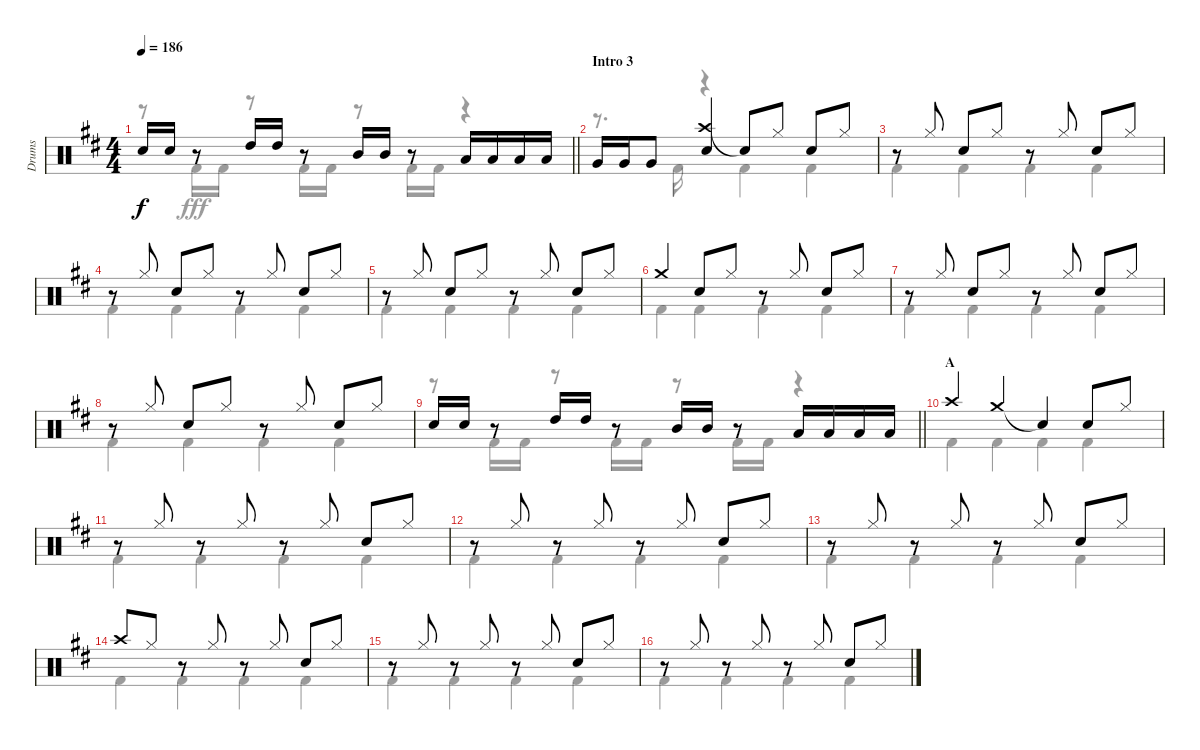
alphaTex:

\track ("Drums" "Drums") {instrument percussion}
\staff {score}
\articulation defaults
\voice
\ts (4 4)
\tempo 186
\clef neutral
\barLineRight lightlight
\ks d "Snare (hit) 2".16{dy f} "Snare (hit) 2".16
r.8 "High Tom (hit)".16 "High Tom (hit)".16 r.8 "Mid Tom (hit)".16 "Mid Tom (hit)".16 r.8 "Low Tom (hit)".16 "Low Tom (hit)".16 "Low Tom (hit)".16 "Low Tom (hit)".16 |
\section ("" "Intro 3")
"Very Low Tom (hit)".16 "Very Low Tom (hit)".16 "Very Low Tom (hit)".8 ("Crash high (hit)" "Snare (hit) 2").4 "Snare (hit)"{t}.8 "Hi-Hat (closed)".8 "Snare (hit) 2".8 "Hi-Hat (closed)".8 |
r.8 "Hi-Hat (closed)".8 "Snare (hit) 2".8 "Hi-Hat (closed)".8 r.8 "Hi-Hat (closed)".8 "Snare (hit) 2".8 "Hi-Hat (closed)".8 |
r.8 "Hi-Hat (closed)".8 "Snare (hit) 2".8 "Hi-Hat (closed)".8 r.8 "Hi-Hat (closed)".8 "Snare (hit) 2".8 "Hi-Hat (closed)".8 |
r.8 "Hi-Hat (closed)".8 "Snare (hit) 2".8 "Hi-Hat (closed)".8 r.8 "Hi-Hat (closed)".8 "Snare (hit) 2".8 "Hi-Hat (closed)".8 |
"Crash medium (hit)".4 "Snare (hit) 2".8 "Hi-Hat (closed)".8 r.8 "Hi-Hat (closed)".8 "Snare (hit) 2".8 "Hi-Hat (closed)".8 |
r.8 "Hi-Hat (closed)".8 "Snare (hit) 2".8 "Hi-Hat (closed)".8 r.8 "Hi-Hat (closed)".8 "Snare (hit) 2".8 "Hi-Hat (closed)".8 |
r.8 "Hi-Hat (closed)".8 "Snare (hit) 2".8 "Hi-Hat (closed)".8 r.8 "Hi-Hat (closed)".8 "Snare (hit) 2".8 "Hi-Hat (closed)".8 |
\barLineRight lightlight "Snare (hit) 2".16 "Snare (hit) 2".16
r.8 "High Tom (hit)".16 "High Tom (hit)".16 r.8 "Mid Tom (hit)".16 "Mid Tom (hit)".16 r.8 "Low Tom (hit)".16 "Low Tom (hit)".16 "Low Tom (hit)".16 "Low Tom (hit)".16 |
\section ("" "A")
"Crash high (hit)".4 "Crash medium (hit)".4 "Snare (hit)"{t}.4 "Snare (hit) 2".8 "Hi-Hat (closed)".8 |
r.8 "Hi-Hat (closed)".8 r.8 "Hi-Hat (closed)".8 r.8 "Hi-Hat (closed)".8 "Snare (hit) 2".8 "Hi-Hat (closed)".8 |
r.8 "Hi-Hat (closed)".8 r.8 "Hi-Hat (closed)".8 r.8 "Hi-Hat (closed)".8 "Snare (hit) 2".8 "Hi-Hat (closed)".8 |
r.8 "Hi-Hat (closed)".8 r.8 "Hi-Hat (closed)".8 r.8 "Hi-Hat (closed)".8 "Snare (hit) 2".8 "Hi-Hat (closed)".8 |
"Crash high (hit)".8 "Hi-Hat (closed)".8 r.8 "Hi-Hat (closed)".8 r.8 "Hi-Hat (closed)".8 "Snare (hit) 2".8 "Hi-Hat (closed)".8 |
r.8 "Hi-Hat (closed)".8 r.8 "Hi-Hat (closed)".8 r.8 "Hi-Hat (closed)".8 "Snare (hit) 2".8 "Hi-Hat (closed)".8 |
r.8 "Hi-Hat (closed)".8 r.8 "Hi-Hat (closed)".8 r.8 "Hi-Hat (closed)".8 "Snare (hit) 2".8 "Hi-Hat (closed)".8
\voice
\clef neutral
\ottava regular
\simile none
\barLineRight lightlight
\ks d
r.8{dy fff} "Kick (hit) 2".16 "Kick (hit) 2".16 r.8 "Kick (hit) 2".16 "Kick (hit) 2".16 r.8 "Kick (hit) 2".16 "Kick (hit) 2".16 r.4 |
r.8{d} "Kick (hit) 2".16 r.4 "Kick (hit) 2".4 "Kick (hit) 2".4 |
"Kick (hit) 2".4 "Kick (hit) 2".4 "Kick (hit) 2".4 "Kick (hit) 2".4 |
"Kick (hit) 2".4 "Kick (hit) 2".4 "Kick (hit) 2".4 "Kick (hit) 2".4 |
"Kick (hit) 2".4 "Kick (hit) 2".4 "Kick (hit) 2".4 "Kick (hit) 2".4 |
"Kick (hit) 2".4 "Kick (hit) 2".4 "Kick (hit) 2".4 "Kick (hit) 2".4 |
"Kick (hit) 2".4 "Kick (hit) 2".4 "Kick (hit) 2".4 "Kick (hit) 2".4 |
"Kick (hit) 2".4 "Kick (hit) 2".4 "Kick (hit) 2".4 "Kick (hit) 2".4 |
\barLineRight lightlight
r.8 "Kick (hit) 2".16 "Kick (hit) 2".16 r.8 "Kick (hit) 2".16 "Kick (hit) 2".16 r.8 "Kick (hit) 2".16 "Kick (hit) 2".16 r.4 |
"Kick (hit) 2".4 "Kick (hit) 2".4 "Kick (hit) 2".4 "Kick (hit) 2".4 |
"Kick (hit) 2".4 "Kick (hit) 2".4 "Kick (hit) 2".4 "Kick (hit) 2".4 |
"Kick (hit) 2".4 "Kick (hit) 2".4 "Kick (hit) 2".4 "Kick (hit) 2".4 |
"Kick (hit) 2".4 "Kick (hit) 2".4 "Kick (hit) 2".4 "Kick (hit) 2".4 |
"Kick (hit) 2".4 "Kick (hit) 2".4 "Kick (hit) 2".4 "Kick (hit) 2".4 |
"Kick (hit) 2".4 "Kick (hit) 2".4 "Kick (hit) 2".4 "Kick (hit) 2".4 |
"Kick (hit) 2".4 "Kick (hit) 2".4 "Kick (hit) 2".4 "Kick (hit) 2".4
